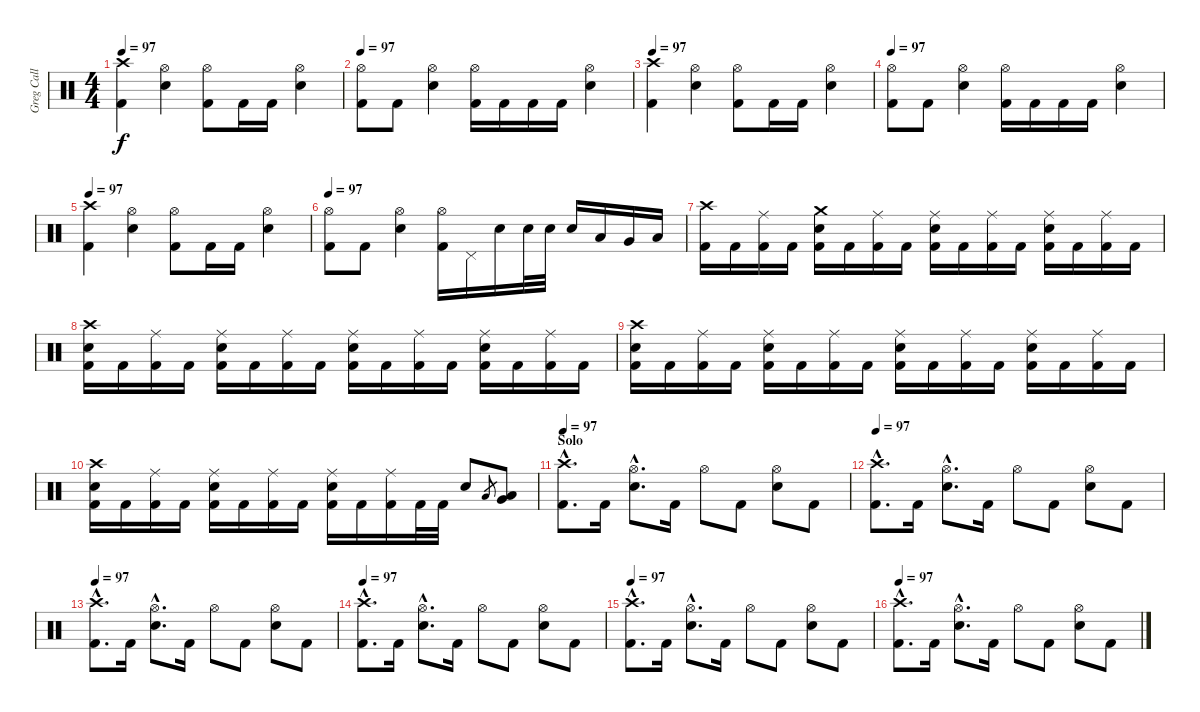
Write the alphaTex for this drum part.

\track ("Greg Call (Drums)" "Greg Call ") {instrument percussion}
\staff {score}
\articulation defaults
\ts (4 4)
\tempo 97
\clef neutral
\ks c
("Crash high (hit)" "Kick (hit) 2").4{dy f} ("Hi-Hat (open)" "Snare (hit) 2").4 ("Hi-Hat (open)" "Kick (hit) 2").8 "Kick (hit) 2".16 "Kick (hit) 2".16 ("Hi-Hat (open)" "Snare (hit) 2").4 |
\tempo 97
("Hi-Hat (open)" "Kick (hit) 2").8 "Kick (hit) 2".8 ("Hi-Hat (open)" "Snare (hit) 2").4 ("Hi-Hat (open)" "Kick (hit) 2").16 "Kick (hit) 2".16 "Kick (hit) 2".16 "Kick (hit) 2".16 ("Hi-Hat (open)" "Snare (hit) 2").4 |
\tempo 97
("Crash high (hit)" "Kick (hit) 2").4 ("Hi-Hat (open)" "Snare (hit) 2").4 ("Hi-Hat (open)" "Kick (hit) 2").8 "Kick (hit) 2".16 "Kick (hit) 2".16 ("Hi-Hat (open)" "Snare (hit) 2").4 |
\tempo 97
("Hi-Hat (open)" "Kick (hit) 2").8 "Kick (hit) 2".8 ("Hi-Hat (open)" "Snare (hit) 2").4 ("Hi-Hat (open)" "Kick (hit) 2").16 "Kick (hit) 2".16 "Kick (hit) 2".16 "Kick (hit) 2".16 ("Hi-Hat (open)" "Snare (hit) 2").4 |
\tempo 97
("Crash high (hit)" "Kick (hit) 2").4 ("Hi-Hat (open)" "Snare (hit) 2").4 ("Hi-Hat (open)" "Kick (hit) 2").8 "Kick (hit) 2".16 "Kick (hit) 2".16 ("Hi-Hat (open)" "Snare (hit) 2").4 |
\tempo 97
("Hi-Hat (open)" "Kick (hit) 2").8 "Kick (hit) 2".8 ("Hi-Hat (open)" "Snare (hit) 2").4 ("Hi-Hat (open)" "Kick (hit) 2").16 "Pedal Hi-Hat (hit)".16 "Snare (hit) 2".16 "Snare (hit) 2".32 "Snare (hit) 2".32 "Snare (hit) 2".16 "Low Tom (hit)".16 "Very Low Tom (hit)".16 "Low Floor Tom (hit)".16 |
("Crash high (hit)" "Kick (hit) 2").16 "Kick (hit) 2".16 ("Ride (middle)" "Kick (hit) 2").16 "Kick (hit) 2".16 ("Snare (hit) 2" "Crash medium (hit)" "Kick (hit) 2").16 "Kick (hit) 2".16 ("Ride (middle)" "Kick (hit) 2").16 "Kick (hit) 2".16 ("Snare (hit) 2" "Ride (middle)" "Kick (hit) 2").16 "Kick (hit) 2".16 ("Ride (middle)" "Kick (hit) 2").16 "Kick (hit) 2".16 ("Ride (middle)" "Snare (hit) 2" "Kick (hit) 2").16 "Kick (hit) 2".16 ("Ride (middle)" "Kick (hit) 2").16 "Kick (hit) 2".16 |
("Snare (hit) 2" "Crash high (hit)" "Kick (hit) 2").16 "Kick (hit) 2".16 ("Ride (middle)" "Kick (hit) 2").16 "Kick (hit) 2".16 ("Snare (hit) 2" "Ride (middle)" "Kick (hit) 2").16 "Kick (hit) 2".16 ("Ride (middle)" "Kick (hit) 2").16 "Kick (hit) 2".16 ("Snare (hit) 2" "Ride (middle)" "Kick (hit) 2").16 "Kick (hit) 2".16 ("Ride (middle)" "Kick (hit) 2").16 "Kick (hit) 2".16 ("Ride (middle)" "Snare (hit) 2" "Kick (hit) 2").16 "Kick (hit) 2".16 ("Ride (middle)" "Kick (hit) 2").16 "Kick (hit) 2".16 |
("Snare (hit) 2" "Crash high (hit)" "Kick (hit) 2").16 "Kick (hit) 2".16 ("Ride (middle)" "Kick (hit) 2").16 "Kick (hit) 2".16 ("Snare (hit) 2" "Ride (middle)" "Kick (hit) 2").16 "Kick (hit) 2".16 ("Ride (middle)" "Kick (hit) 2").16 "Kick (hit) 2".16 ("Snare (hit) 2" "Ride (middle)" "Kick (hit) 2").16 "Kick (hit) 2".16 ("Ride (middle)" "Kick (hit) 2").16 "Kick (hit) 2".16 ("Ride (middle)" "Snare (hit) 2" "Kick (hit) 2").16 "Kick (hit) 2".16 ("Ride (middle)" "Kick (hit) 2").16 "Kick (hit) 2".16 |
("Snare (hit) 2" "Crash high (hit)" "Kick (hit) 2").16 "Kick (hit) 2".16 ("Ride (middle)" "Kick (hit) 2").16 "Kick (hit) 2".16 ("Snare (hit) 2" "Ride (middle)" "Kick (hit) 2").16 "Kick (hit) 2".16 ("Ride (middle)" "Kick (hit) 2").16 "Kick (hit) 2".16 ("Snare (hit) 2" "Ride (middle)" "Kick (hit) 2").16 "Kick (hit) 2".16 ("Ride (middle)" "Kick (hit) 2").16 "Kick (hit) 2".32 "Kick (hit) 2".32 "Snare (hit) 2".8 "Low Floor Tom (hit)".8{gr} ("Low Floor Tom (hit)" "Very Low Tom (hit)").8 |
\section ("" "Solo")
\tempo 97
("Crash high (hit)"{hac} "Kick (hit) 2"{hac}).8{d} "Kick (hit) 2".16 ("Hi-Hat (open)"{hac} "Snare (hit) 2"{hac}).8{d} "Kick (hit) 2".16 "Hi-Hat (open)".8 "Kick (hit) 2".8 ("Hi-Hat (open)" "Snare (hit) 2").8 "Kick (hit) 2".8 |
\tempo 97
("Crash high (hit)"{hac} "Kick (hit) 2"{hac}).8{d} "Kick (hit) 2".16 ("Hi-Hat (open)"{hac} "Snare (hit) 2"{hac}).8{d} "Kick (hit) 2".16 "Hi-Hat (open)".8 "Kick (hit) 2".8 ("Hi-Hat (open)" "Snare (hit) 2").8 "Kick (hit) 2".8 |
\tempo 97
("Crash high (hit)"{hac} "Kick (hit) 2"{hac}).8{d} "Kick (hit) 2".16 ("Hi-Hat (open)"{hac} "Snare (hit) 2"{hac}).8{d} "Kick (hit) 2".16 "Hi-Hat (open)".8 "Kick (hit) 2".8 ("Hi-Hat (open)" "Snare (hit) 2").8 "Kick (hit) 2".8 |
\tempo 97
("Crash high (hit)"{hac} "Kick (hit) 2"{hac}).8{d} "Kick (hit) 2".16 ("Hi-Hat (open)"{hac} "Snare (hit) 2"{hac}).8{d} "Kick (hit) 2".16 "Hi-Hat (open)".8 "Kick (hit) 2".8 ("Hi-Hat (open)" "Snare (hit) 2").8 "Kick (hit) 2".8 |
\tempo 97
("Crash high (hit)"{hac} "Kick (hit) 2"{hac}).8{d} "Kick (hit) 2".16 ("Hi-Hat (open)"{hac} "Snare (hit) 2"{hac}).8{d} "Kick (hit) 2".16 "Hi-Hat (open)".8 "Kick (hit) 2".8 ("Hi-Hat (open)" "Snare (hit) 2").8 "Kick (hit) 2".8 |
\tempo 97
("Crash high (hit)"{hac} "Kick (hit) 2"{hac}).8{d} "Kick (hit) 2".16 ("Hi-Hat (open)"{hac} "Snare (hit) 2"{hac}).8{d} "Kick (hit) 2".16 "Hi-Hat (open)".8 "Kick (hit) 2".8 ("Hi-Hat (open)" "Snare (hit) 2").8 "Kick (hit) 2".8
